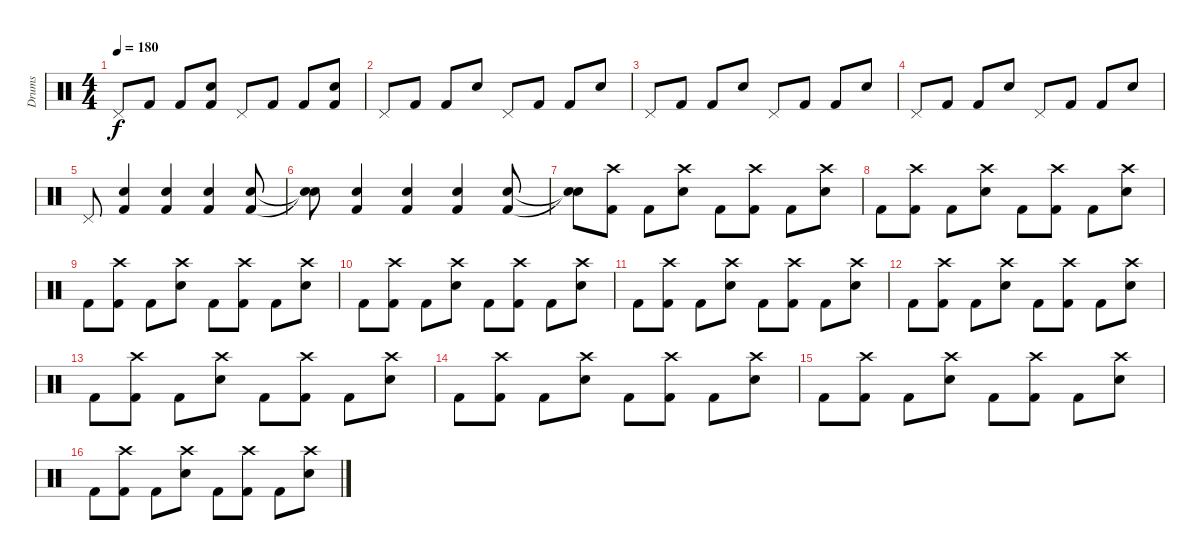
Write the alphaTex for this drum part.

\track ("Drums" "Drums") {instrument percussion}
\staff {score}
\articulation defaults
\ts (4 4)
\tempo 180
\clef neutral
\ks c "Pedal Hi-Hat (hit)".8{dy f} "Kick (hit) 2".8 "Kick (hit) 2".8
("Kick (hit) 2" "Electric Snare (hit)").8 "Pedal Hi-Hat (hit)".8 "Kick (hit) 2".8 "Kick (hit) 2".8 ("Kick (hit) 2" "Electric Snare (hit)").8 |
"Pedal Hi-Hat (hit)".8 "Kick (hit) 2".8 "Kick (hit) 2".8 "Electric Snare (hit)".8 "Pedal Hi-Hat (hit)".8 "Kick (hit) 2".8 "Kick (hit) 2".8 "Electric Snare (hit)".8 |
"Pedal Hi-Hat (hit)".8 "Kick (hit) 2".8 "Kick (hit) 2".8 "Electric Snare (hit)".8 "Pedal Hi-Hat (hit)".8 "Kick (hit) 2".8 "Kick (hit) 2".8 "Electric Snare (hit)".8 |
"Pedal Hi-Hat (hit)".8 "Kick (hit) 2".8 "Kick (hit) 2".8 "Electric Snare (hit)".8 "Pedal Hi-Hat (hit)".8 "Kick (hit) 2".8 "Kick (hit) 2".8 "Electric Snare (hit)".8 |
"Pedal Hi-Hat (hit)".8 ("Kick (hit) 2" "Electric Snare (hit)").4 ("Kick (hit) 2" "Electric Snare (hit)").4 ("Kick (hit) 2" "Electric Snare (hit)").4 ("Kick (hit) 2" "Electric Snare (hit)").8 |
("Snare (hit)"{t} "Snare (hit)"{t}).8 ("Kick (hit) 2" "Electric Snare (hit)").4 ("Kick (hit) 2" "Electric Snare (hit)").4 ("Kick (hit) 2" "Electric Snare (hit)").4 ("Kick (hit) 2" "Electric Snare (hit)").8 |
("Snare (hit)"{t} "Snare (hit)"{t}).8 ("Crash high (hit)" "Kick (hit) 2").8 "Kick (hit) 2".8 ("Crash high (hit)" "Electric Snare (hit)").8 "Kick (hit) 2".8 ("Crash high (hit)" "Kick (hit) 2").8 "Kick (hit) 2".8 ("Crash high (hit)" "Electric Snare (hit)").8 |
"Kick (hit) 2".8 ("Crash high (hit)" "Kick (hit) 2").8 "Kick (hit) 2".8 ("Crash high (hit)" "Electric Snare (hit)").8 "Kick (hit) 2".8 ("Crash high (hit)" "Kick (hit) 2").8 "Kick (hit) 2".8 ("Crash high (hit)" "Electric Snare (hit)").8 |
"Kick (hit) 2".8 ("Crash high (hit)" "Kick (hit) 2").8 "Kick (hit) 2".8 ("Crash high (hit)" "Electric Snare (hit)").8 "Kick (hit) 2".8 ("Crash high (hit)" "Kick (hit) 2").8 "Kick (hit) 2".8 ("Crash high (hit)" "Electric Snare (hit)").8 |
"Kick (hit) 2".8 ("Crash high (hit)" "Kick (hit) 2").8 "Kick (hit) 2".8 ("Crash high (hit)" "Electric Snare (hit)").8 "Kick (hit) 2".8 ("Crash high (hit)" "Kick (hit) 2").8 "Kick (hit) 2".8 ("Crash high (hit)" "Electric Snare (hit)").8 |
"Kick (hit) 2".8 ("Crash high (hit)" "Kick (hit) 2").8 "Kick (hit) 2".8 ("Crash high (hit)" "Electric Snare (hit)").8 "Kick (hit) 2".8 ("Crash high (hit)" "Kick (hit) 2").8 "Kick (hit) 2".8 ("Crash high (hit)" "Electric Snare (hit)").8 |
"Kick (hit) 2".8 ("Crash high (hit)" "Kick (hit) 2").8 "Kick (hit) 2".8 ("Crash high (hit)" "Electric Snare (hit)").8 "Kick (hit) 2".8 ("Crash high (hit)" "Kick (hit) 2").8 "Kick (hit) 2".8 ("Crash high (hit)" "Electric Snare (hit)").8 |
"Kick (hit) 2".8 ("Crash high (hit)" "Kick (hit) 2").8 "Kick (hit) 2".8 ("Crash high (hit)" "Electric Snare (hit)").8 "Kick (hit) 2".8 ("Crash high (hit)" "Kick (hit) 2").8 "Kick (hit) 2".8 ("Crash high (hit)" "Electric Snare (hit)").8 |
"Kick (hit) 2".8 ("Crash high (hit)" "Kick (hit) 2").8 "Kick (hit) 2".8 ("Crash high (hit)" "Electric Snare (hit)").8 "Kick (hit) 2".8 ("Crash high (hit)" "Kick (hit) 2").8 "Kick (hit) 2".8 ("Crash high (hit)" "Electric Snare (hit)").8 |
"Kick (hit) 2".8 ("Crash high (hit)" "Kick (hit) 2").8 "Kick (hit) 2".8 ("Crash high (hit)" "Electric Snare (hit)").8 "Kick (hit) 2".8 ("Crash high (hit)" "Kick (hit) 2").8 "Kick (hit) 2".8 ("Crash high (hit)" "Electric Snare (hit)").8 |
"Kick (hit) 2".8 ("Crash high (hit)" "Kick (hit) 2").8 "Kick (hit) 2".8 ("Crash high (hit)" "Electric Snare (hit)").8 "Kick (hit) 2".8 ("Crash high (hit)" "Kick (hit) 2").8 "Kick (hit) 2".8 ("Crash high (hit)" "Electric Snare (hit)").8
